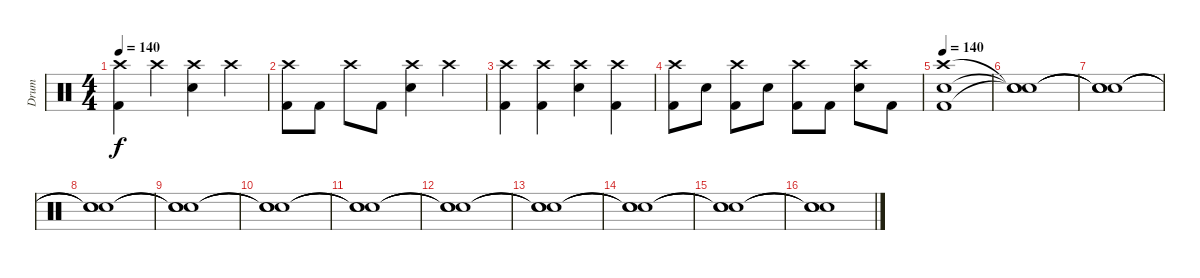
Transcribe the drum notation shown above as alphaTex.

\track ("Drum" "Drum") {instrument percussion}
\staff {score}
\articulation defaults
\ts (4 4)
\tempo 140
\clef neutral
\ks c
("Crash high (hit)" "Kick (hit) 2").4{dy f} "Crash high (hit)".4 ("Crash high (hit)" "Electric Snare (hit)").4 "Crash high (hit)".4 |
("Crash high (hit)" "Kick (hit) 2").8 "Kick (hit) 2".8 "Crash high (hit)".8 "Kick (hit) 2".8 ("Crash high (hit)" "Electric Snare (hit)").4 "Crash high (hit)".4 |
("Crash high (hit)" "Kick (hit) 2").4 ("Crash high (hit)" "Kick (hit) 2").4 ("Crash high (hit)" "Electric Snare (hit)").4 ("Crash high (hit)" "Kick (hit) 2").4 |
("Crash high (hit)" "Kick (hit) 2").8 "Electric Snare (hit)".8 ("Crash high (hit)" "Kick (hit) 2").8 "Electric Snare (hit)".8 ("Crash high (hit)" "Kick (hit) 2").8 "Kick (hit) 2".8 ("Crash high (hit)" "Electric Snare (hit)").8 "Kick (hit) 2".8 |
\tempo 140
("Crash high (hit)" "Kick (hit) 2" "Electric Snare (hit)").1 |
("Snare (hit)"{t} "Snare (hit)"{t} "Snare (hit)"{t}).1 |
("Snare (hit)"{t} "Snare (hit)"{t} "Snare (hit)"{t}).1 |
("Snare (hit)"{t} "Snare (hit)"{t} "Snare (hit)"{t}).1 |
("Snare (hit)"{t} "Snare (hit)"{t} "Snare (hit)"{t}).1 |
("Snare (hit)"{t} "Snare (hit)"{t} "Snare (hit)"{t}).1 |
("Snare (hit)"{t} "Snare (hit)"{t} "Snare (hit)"{t}).1 |
("Snare (hit)"{t} "Snare (hit)"{t} "Snare (hit)"{t}).1 |
("Snare (hit)"{t} "Snare (hit)"{t} "Snare (hit)"{t}).1 |
("Snare (hit)"{t} "Snare (hit)"{t} "Snare (hit)"{t}).1 |
("Snare (hit)"{t} "Snare (hit)"{t} "Snare (hit)"{t}).1 |
("Snare (hit)"{t} "Snare (hit)"{t} "Snare (hit)"{t}).1
